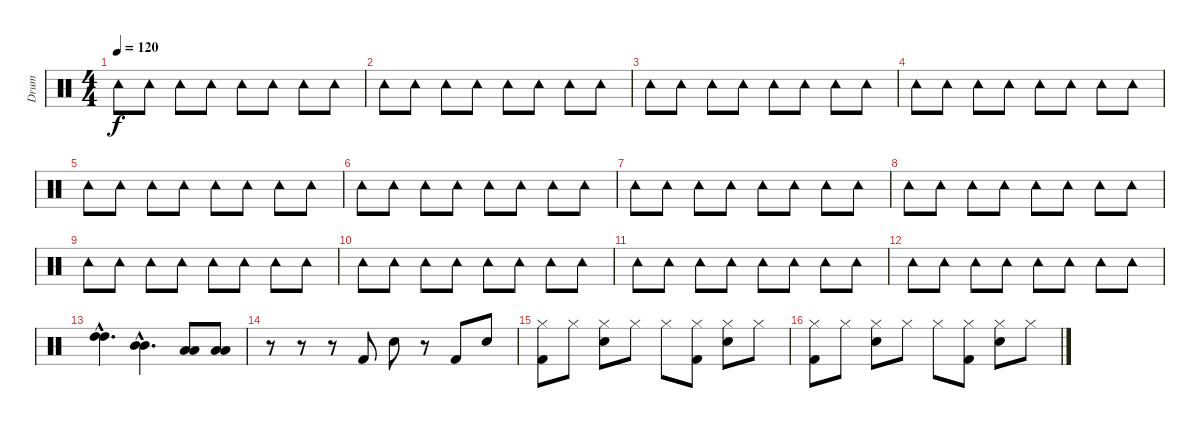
\track ("Drum" "Drum") {instrument percussion}
\staff {score}
\articulation defaults
\ts (4 4)
\tempo 120
\clef neutral
\ks c "Tambourine (hit)".8{dy f} "Tambourine (hit)".8 "Tambourine (hit)".8 "Tambourine (hit)".8 "Tambourine (hit)".8 "Tambourine (hit)".8 "Tambourine (hit)".8 "Tambourine (hit)".8
|
"Tambourine (hit)".8 "Tambourine (hit)".8 "Tambourine (hit)".8 "Tambourine (hit)".8 "Tambourine (hit)".8 "Tambourine (hit)".8 "Tambourine (hit)".8 "Tambourine (hit)".8 |
"Tambourine (hit)".8 "Tambourine (hit)".8 "Tambourine (hit)".8 "Tambourine (hit)".8 "Tambourine (hit)".8 "Tambourine (hit)".8 "Tambourine (hit)".8 "Tambourine (hit)".8 |
"Tambourine (hit)".8 "Tambourine (hit)".8 "Tambourine (hit)".8 "Tambourine (hit)".8 "Tambourine (hit)".8 "Tambourine (hit)".8 "Tambourine (hit)".8 "Tambourine (hit)".8 |
"Tambourine (hit)".8 "Tambourine (hit)".8 "Tambourine (hit)".8 "Tambourine (hit)".8 "Tambourine (hit)".8 "Tambourine (hit)".8 "Tambourine (hit)".8 "Tambourine (hit)".8 |
"Tambourine (hit)".8 "Tambourine (hit)".8 "Tambourine (hit)".8 "Tambourine (hit)".8 "Tambourine (hit)".8 "Tambourine (hit)".8 "Tambourine (hit)".8 "Tambourine (hit)".8 |
"Tambourine (hit)".8 "Tambourine (hit)".8 "Tambourine (hit)".8 "Tambourine (hit)".8 "Tambourine (hit)".8 "Tambourine (hit)".8 "Tambourine (hit)".8 "Tambourine (hit)".8 |
"Tambourine (hit)".8 "Tambourine (hit)".8 "Tambourine (hit)".8 "Tambourine (hit)".8 "Tambourine (hit)".8 "Tambourine (hit)".8 "Tambourine (hit)".8 "Tambourine (hit)".8 |
"Tambourine (hit)".8 "Tambourine (hit)".8 "Tambourine (hit)".8 "Tambourine (hit)".8 "Tambourine (hit)".8 "Tambourine (hit)".8 "Tambourine (hit)".8 "Tambourine (hit)".8 |
"Tambourine (hit)".8 "Tambourine (hit)".8 "Tambourine (hit)".8 "Tambourine (hit)".8 "Tambourine (hit)".8 "Tambourine (hit)".8 "Tambourine (hit)".8 "Tambourine (hit)".8 |
"Tambourine (hit)".8 "Tambourine (hit)".8 "Tambourine (hit)".8 "Tambourine (hit)".8 "Tambourine (hit)".8 "Tambourine (hit)".8 "Tambourine (hit)".8 "Tambourine (hit)".8 |
"Tambourine (hit)".8 "Tambourine (hit)".8 "Tambourine (hit)".8 "Tambourine (hit)".8 "Tambourine (hit)".8 "Tambourine (hit)".8 "Tambourine (hit)".8 "Tambourine (hit)".8 |
("High Tom (hit)"{hac} "High Tom (hit)"{hac}).4{d} ("Mid Tom (hit)"{hac} "Mid Tom (hit)"{hac}).4{d} ("Low Floor Tom (hit)" "Low Floor Tom (hit)").8 ("Low Floor Tom (hit)" "Low Floor Tom (hit)").8 |
r.8 r.8 r.8 "Kick (hit) 2".8 "Snare (hit) 2".8 r.8 "Kick (hit) 2".8 "Snare (hit) 2".8 |
("Kick (hit) 2" "Hi-Hat (closed)").8 "Hi-Hat (closed)".8 ("Snare (hit) 2" "Hi-Hat (closed)").8 "Hi-Hat (closed)".8 "Hi-Hat (closed)".8 ("Kick (hit) 2" "Hi-Hat (closed)").8 ("Snare (hit) 2" "Hi-Hat (closed)").8 "Hi-Hat (closed)".8 |
("Kick (hit) 2" "Hi-Hat (closed)").8 "Hi-Hat (closed)".8 ("Snare (hit) 2" "Hi-Hat (closed)").8 "Hi-Hat (closed)".8 "Hi-Hat (closed)".8 ("Kick (hit) 2" "Hi-Hat (closed)").8 ("Snare (hit) 2" "Hi-Hat (closed)").8 "Hi-Hat (closed)".8
